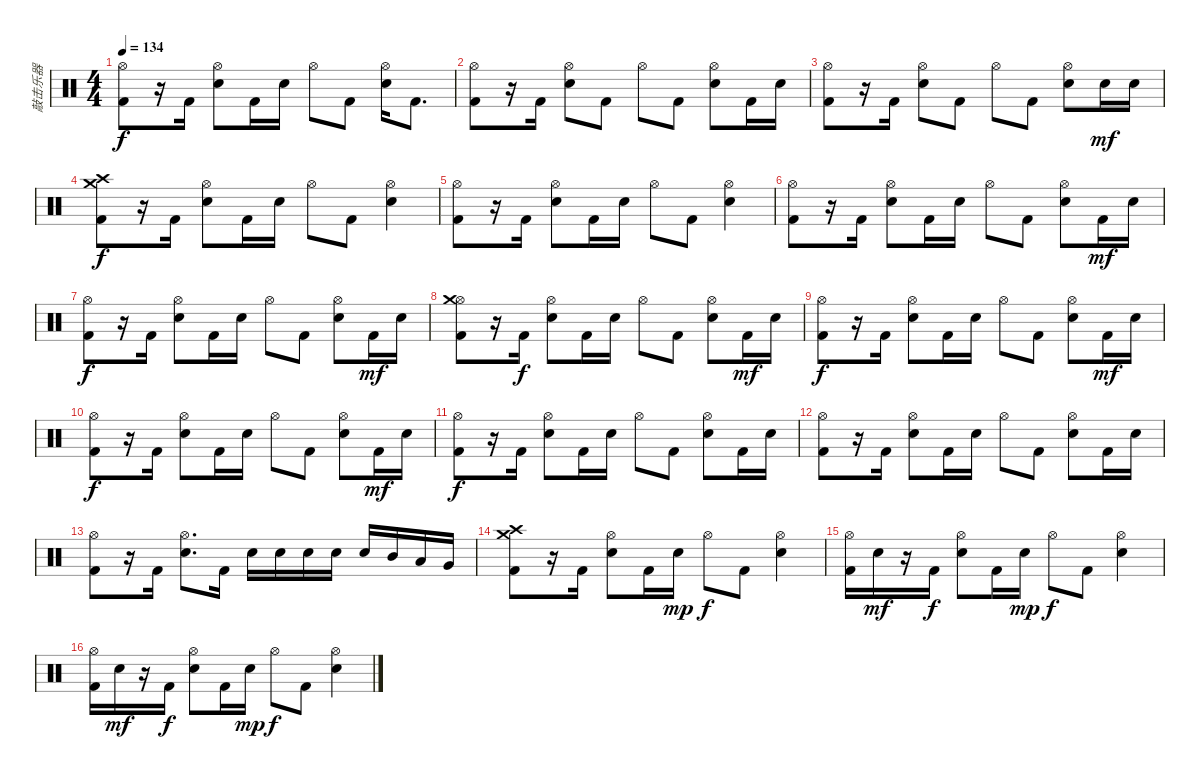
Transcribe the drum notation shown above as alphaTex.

\track ("敲击乐器" "敲击乐器") {instrument percussion}
\staff {score}
\articulation defaults
\ts (4 4)
\tempo 134
\clef neutral
\ks c
("Hi-Hat (open)" "Kick (hit) 2").8{dy f} r.16 "Kick (hit) 2".16 ("Hi-Hat (open)" "Electric Snare (hit)").8 "Kick (hit) 2".16 "Electric Snare (hit)".16 "Hi-Hat (open)".8 "Kick (hit) 2".8 ("Hi-Hat (open)" "Electric Snare (hit)").16 "Kick (hit) 2".8{d} |
("Hi-Hat (open)" "Kick (hit) 2").8 r.16 "Kick (hit) 2".16 ("Hi-Hat (open)" "Electric Snare (hit)").8 "Kick (hit) 2".8 "Hi-Hat (open)".8 "Kick (hit) 2".8 ("Hi-Hat (open)" "Electric Snare (hit)").8 "Kick (hit) 2".16 "Electric Snare (hit)".16 |
("Hi-Hat (open)" "Kick (hit) 2").8 r.16 "Kick (hit) 2".16 ("Hi-Hat (open)" "Electric Snare (hit)").8 "Kick (hit) 2".8 "Hi-Hat (open)".8 "Kick (hit) 2".8 ("Hi-Hat (open)" "Electric Snare (hit)").8 "Electric Snare (hit)".16{dy mf} "Electric Snare (hit)".16 |
("Crash high (hit)" "Crash medium (hit)" "Kick (hit) 2").8{dy f} r.16 "Kick (hit) 2".16 ("Hi-Hat (open)" "Electric Snare (hit)").8 "Kick (hit) 2".16 "Electric Snare (hit)".16 "Hi-Hat (open)".8 "Kick (hit) 2".8 ("Hi-Hat (open)" "Electric Snare (hit)").4 |
("Hi-Hat (open)" "Kick (hit) 2").8 r.16 "Kick (hit) 2".16 ("Hi-Hat (open)" "Electric Snare (hit)").8 "Kick (hit) 2".16 "Electric Snare (hit)".16 "Hi-Hat (open)".8 "Kick (hit) 2".8 ("Hi-Hat (open)" "Electric Snare (hit)").4 |
("Hi-Hat (open)" "Kick (hit) 2").8 r.16 "Kick (hit) 2".16 ("Hi-Hat (open)" "Electric Snare (hit)").8 "Kick (hit) 2".16 "Electric Snare (hit)".16 "Hi-Hat (open)".8 "Kick (hit) 2".8 ("Hi-Hat (open)" "Electric Snare (hit)").8 "Kick (hit) 2".16{dy mf} "Electric Snare (hit)".16 |
("Hi-Hat (open)" "Kick (hit) 2").8{dy f} r.16 "Kick (hit) 2".16 ("Hi-Hat (open)" "Electric Snare (hit)").8 "Kick (hit) 2".16 "Electric Snare (hit)".16 "Hi-Hat (open)".8 "Kick (hit) 2".8 ("Hi-Hat (open)" "Electric Snare (hit)").8 "Kick (hit) 2".16{dy mf} "Electric Snare (hit)".16 |
("Hi-Hat (open)" "Crash medium (hit)" "Kick (hit) 2").8 r.16 "Kick (hit) 2".16{dy f} ("Hi-Hat (open)" "Electric Snare (hit)").8 "Kick (hit) 2".16 "Electric Snare (hit)".16 "Hi-Hat (open)".8 "Kick (hit) 2".8 ("Hi-Hat (open)" "Electric Snare (hit)").8 "Kick (hit) 2".16{dy mf} "Electric Snare (hit)".16 |
("Hi-Hat (open)" "Kick (hit) 2").8{dy f} r.16 "Kick (hit) 2".16 ("Hi-Hat (open)" "Electric Snare (hit)").8 "Kick (hit) 2".16 "Electric Snare (hit)".16 "Hi-Hat (open)".8 "Kick (hit) 2".8 ("Hi-Hat (open)" "Electric Snare (hit)").8 "Kick (hit) 2".16{dy mf} "Electric Snare (hit)".16 |
("Hi-Hat (open)" "Kick (hit) 2").8{dy f} r.16 "Kick (hit) 2".16 ("Hi-Hat (open)" "Electric Snare (hit)").8 "Kick (hit) 2".16 "Electric Snare (hit)".16 "Hi-Hat (open)".8 "Kick (hit) 2".8 ("Hi-Hat (open)" "Electric Snare (hit)").8 "Kick (hit) 2".16{dy mf} "Electric Snare (hit)".16 |
("Hi-Hat (open)" "Kick (hit) 2").8{dy f} r.16 "Kick (hit) 2".16 ("Hi-Hat (open)" "Electric Snare (hit)").8 "Kick (hit) 2".16 "Electric Snare (hit)".16 "Hi-Hat (open)".8 "Kick (hit) 2".8 ("Hi-Hat (open)" "Electric Snare (hit)").8 "Kick (hit) 2".16 "Electric Snare (hit)".16 |
("Hi-Hat (open)" "Kick (hit) 2").8 r.16 "Kick (hit) 2".16 ("Hi-Hat (open)" "Electric Snare (hit)").8 "Kick (hit) 2".16 "Electric Snare (hit)".16 "Hi-Hat (open)".8 "Kick (hit) 2".8 ("Hi-Hat (open)" "Electric Snare (hit)").8 "Kick (hit) 2".16 "Electric Snare (hit)".16 |
("Hi-Hat (open)" "Kick (hit) 2").8 r.16 "Kick (hit) 2".16 ("Hi-Hat (open)" "Electric Snare (hit)").8{d} "Kick (hit) 2".16 "Electric Snare (hit)".16 "Electric Snare (hit)".16 "Electric Snare (hit)".16 "Electric Snare (hit)".16 "Electric Snare (hit)".16 "Mid Tom (hit)".16 "Low Tom (hit)".16 "Very Low Tom (hit)".16 |
("Crash high (hit)" "Crash medium (hit)" "Kick (hit) 2").8 r.16 "Kick (hit) 2".16 ("Hi-Hat (open)" "Electric Snare (hit)").8 "Kick (hit) 2".16 "Electric Snare (hit)".16{dy mp} "Hi-Hat (open)".8{dy f} "Kick (hit) 2".8 ("Hi-Hat (open)" "Electric Snare (hit)").4 |
("Hi-Hat (open)" "Kick (hit) 2").16 "Electric Snare (hit)".16{dy mf} r.16 "Kick (hit) 2".16{dy f} ("Hi-Hat (open)" "Electric Snare (hit)").8 "Kick (hit) 2".16 "Electric Snare (hit)".16{dy mp} "Hi-Hat (open)".8{dy f} "Kick (hit) 2".8 ("Hi-Hat (open)" "Electric Snare (hit)").4 |
("Hi-Hat (open)" "Kick (hit) 2").16 "Electric Snare (hit)".16{dy mf} r.16 "Kick (hit) 2".16{dy f} ("Hi-Hat (open)" "Electric Snare (hit)").8 "Kick (hit) 2".16 "Electric Snare (hit)".16{dy mp} "Hi-Hat (open)".8{dy f} "Kick (hit) 2".8 ("Hi-Hat (open)" "Electric Snare (hit)").4
